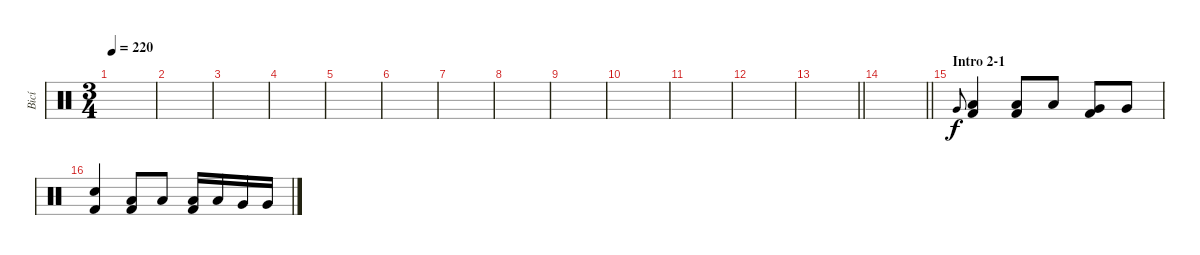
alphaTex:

\track ("Bicí" "Bicí") {instrument percussion}
\staff {score}
\articulation defaults
\ts (3 4)
\tempo 220
\clef neutral
\ks c
|
|
|
|
|
|
|
|
|
|
|
|
\barLineRight lightlight
|
\barLineRight lightlight
|
\section ("" "Intro 2-1")
"Very Low Tom (hit)".8{gr onbeat} ("Low Tom (hit)" "Kick (hit) 2").4 ("Low Tom (hit)" "Kick (hit) 2").8 "Low Tom (hit)".8 ("Very Low Tom (hit)" "Kick (hit) 2").8 "Very Low Tom (hit)".8 |
("Electric Snare (hit)" "Kick (hit) 2").4 ("Low Tom (hit)" "Kick (hit) 2").8 "Low Tom (hit)".8 ("Low Tom (hit)" "Kick (hit) 2").16 "Low Tom (hit)".16 "Very Low Tom (hit)".16 "Very Low Tom (hit)".16
